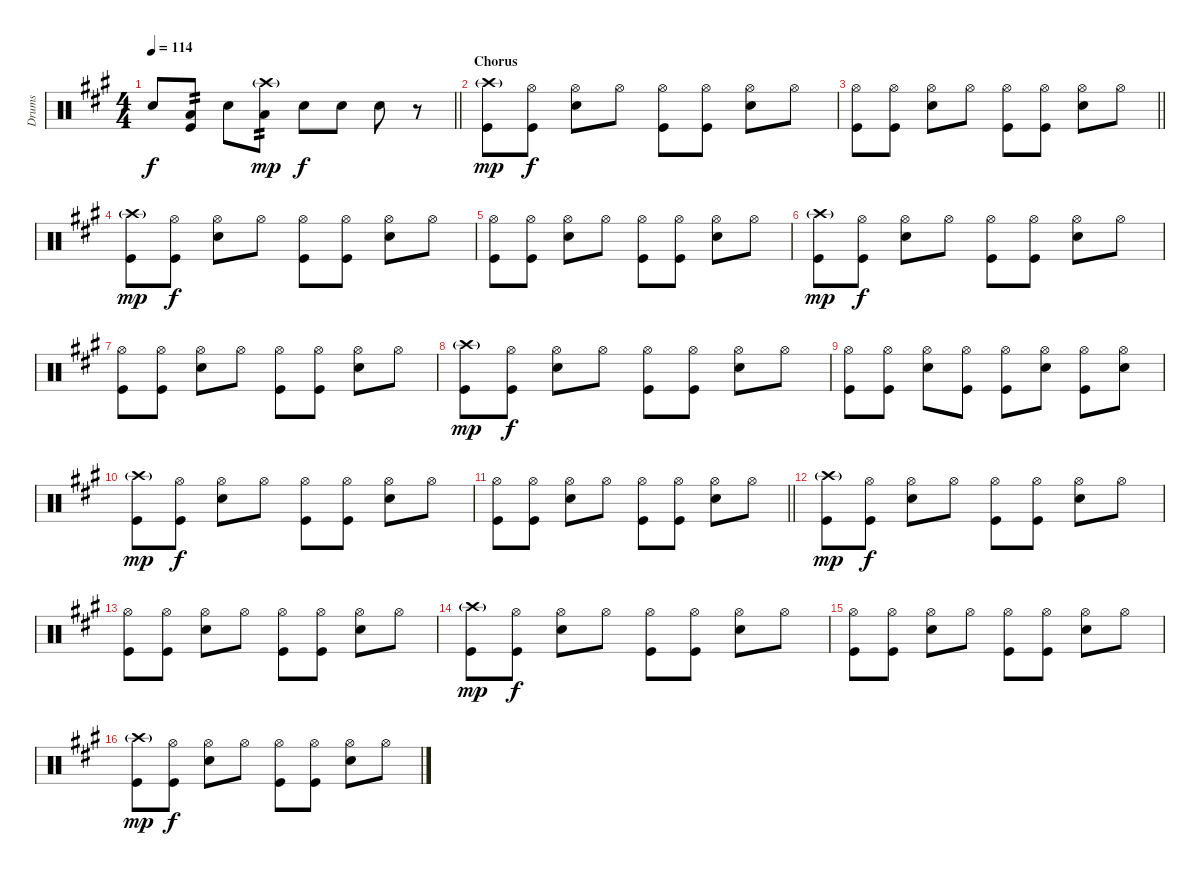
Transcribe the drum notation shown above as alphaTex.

\track ("Drums" "Drums") {instrument percussion}
\staff {score}
\articulation defaults
\ts (4 4)
\tempo 114
\clef neutral
\barLineRight lightlight
\ks f#minor "Snare (hit) 2".8{dy f}
("Low Floor Tom (hit)" "Kick (hit)").8{tp 2} "Snare (hit) 2".8 ("Crash high (hit)"{g} "Low Floor Tom (hit)").8{tp 2 dy mp} "Electric Snare (hit)".8{dy f} "Electric Snare (hit)".8 "Electric Snare (hit)".8 r.8 |
\section ("" "Chorus")
("Crash high (hit)"{g} "Kick (hit)").8{dy mp} ("Hi-Hat (open)" "Kick (hit)").8{dy f} ("Hi-Hat (open)" "Snare (hit) 2").8 "Hi-Hat (open)".8 ("Hi-Hat (open)" "Kick (hit)").8 ("Hi-Hat (open)" "Kick (hit)").8 ("Hi-Hat (open)" "Snare (hit) 2").8 "Hi-Hat (open)".8 |
\barLineRight lightlight
("Hi-Hat (open)" "Kick (hit)").8 ("Hi-Hat (open)" "Kick (hit)").8 ("Hi-Hat (open)" "Snare (hit) 2").8 "Hi-Hat (open)".8 ("Hi-Hat (open)" "Kick (hit)").8 ("Hi-Hat (open)" "Kick (hit)").8 ("Hi-Hat (open)" "Snare (hit) 2").8 "Hi-Hat (open)".8 |
("Crash high (hit)"{g} "Kick (hit)").8{dy mp} ("Hi-Hat (open)" "Kick (hit)").8{dy f} ("Hi-Hat (open)" "Snare (hit) 2").8 "Hi-Hat (open)".8 ("Hi-Hat (open)" "Kick (hit)").8 ("Hi-Hat (open)" "Kick (hit)").8 ("Hi-Hat (open)" "Snare (hit) 2").8 "Hi-Hat (open)".8 |
("Hi-Hat (open)" "Kick (hit)").8 ("Hi-Hat (open)" "Kick (hit)").8 ("Hi-Hat (open)" "Snare (hit) 2").8 "Hi-Hat (open)".8 ("Hi-Hat (open)" "Kick (hit)").8 ("Hi-Hat (open)" "Kick (hit)").8 ("Hi-Hat (open)" "Snare (hit) 2").8 "Hi-Hat (open)".8 |
("Crash high (hit)"{g} "Kick (hit)").8{dy mp} ("Hi-Hat (open)" "Kick (hit)").8{dy f} ("Hi-Hat (open)" "Snare (hit) 2").8 "Hi-Hat (open)".8 ("Hi-Hat (open)" "Kick (hit)").8 ("Hi-Hat (open)" "Kick (hit)").8 ("Hi-Hat (open)" "Snare (hit) 2").8 "Hi-Hat (open)".8 |
("Hi-Hat (open)" "Kick (hit)").8 ("Hi-Hat (open)" "Kick (hit)").8 ("Hi-Hat (open)" "Snare (hit) 2").8 "Hi-Hat (open)".8 ("Hi-Hat (open)" "Kick (hit)").8 ("Hi-Hat (open)" "Kick (hit)").8 ("Hi-Hat (open)" "Snare (hit) 2").8 "Hi-Hat (open)".8 |
("Crash high (hit)"{g} "Kick (hit)").8{dy mp} ("Hi-Hat (open)" "Kick (hit)").8{dy f} ("Hi-Hat (open)" "Snare (hit) 2").8 "Hi-Hat (open)".8 ("Hi-Hat (open)" "Kick (hit)").8 ("Hi-Hat (open)" "Kick (hit)").8 ("Hi-Hat (open)" "Snare (hit) 2").8 "Hi-Hat (open)".8 |
("Hi-Hat (open)" "Kick (hit)").8 ("Hi-Hat (open)" "Kick (hit)").8 ("Hi-Hat (open)" "Snare (hit) 2").8 ("Hi-Hat (open)" "Kick (hit)").8 ("Hi-Hat (open)" "Kick (hit)").8 ("Hi-Hat (open)" "Snare (hit) 2").8 ("Hi-Hat (open)" "Kick (hit)").8 ("Hi-Hat (open)" "Snare (hit) 2").8 |
("Crash high (hit)"{g} "Kick (hit)").8{dy mp} ("Hi-Hat (open)" "Kick (hit)").8{dy f} ("Hi-Hat (open)" "Snare (hit) 2").8 "Hi-Hat (open)".8 ("Hi-Hat (open)" "Kick (hit)").8 ("Hi-Hat (open)" "Kick (hit)").8 ("Hi-Hat (open)" "Snare (hit) 2").8 "Hi-Hat (open)".8 |
\barLineRight lightlight
("Hi-Hat (open)" "Kick (hit)").8 ("Hi-Hat (open)" "Kick (hit)").8 ("Hi-Hat (open)" "Snare (hit) 2").8 "Hi-Hat (open)".8 ("Hi-Hat (open)" "Kick (hit)").8 ("Hi-Hat (open)" "Kick (hit)").8 ("Hi-Hat (open)" "Snare (hit) 2").8 "Hi-Hat (open)".8 |
("Crash high (hit)"{g} "Kick (hit)").8{dy mp} ("Hi-Hat (open)" "Kick (hit)").8{dy f} ("Hi-Hat (open)" "Snare (hit) 2").8 "Hi-Hat (open)".8 ("Hi-Hat (open)" "Kick (hit)").8 ("Hi-Hat (open)" "Kick (hit)").8 ("Hi-Hat (open)" "Snare (hit) 2").8 "Hi-Hat (open)".8 |
("Hi-Hat (open)" "Kick (hit)").8 ("Hi-Hat (open)" "Kick (hit)").8 ("Hi-Hat (open)" "Snare (hit) 2").8 "Hi-Hat (open)".8 ("Hi-Hat (open)" "Kick (hit)").8 ("Hi-Hat (open)" "Kick (hit)").8 ("Hi-Hat (open)" "Snare (hit) 2").8 "Hi-Hat (open)".8 |
("Crash high (hit)"{g} "Kick (hit)").8{dy mp} ("Hi-Hat (open)" "Kick (hit)").8{dy f} ("Hi-Hat (open)" "Snare (hit) 2").8 "Hi-Hat (open)".8 ("Hi-Hat (open)" "Kick (hit)").8 ("Hi-Hat (open)" "Kick (hit)").8 ("Hi-Hat (open)" "Snare (hit) 2").8 "Hi-Hat (open)".8 |
("Hi-Hat (open)" "Kick (hit)").8 ("Hi-Hat (open)" "Kick (hit)").8 ("Hi-Hat (open)" "Snare (hit) 2").8 "Hi-Hat (open)".8 ("Hi-Hat (open)" "Kick (hit)").8 ("Hi-Hat (open)" "Kick (hit)").8 ("Hi-Hat (open)" "Snare (hit) 2").8 "Hi-Hat (open)".8 |
("Crash high (hit)"{g} "Kick (hit)").8{dy mp} ("Hi-Hat (open)" "Kick (hit)").8{dy f} ("Hi-Hat (open)" "Snare (hit) 2").8 "Hi-Hat (open)".8 ("Hi-Hat (open)" "Kick (hit)").8 ("Hi-Hat (open)" "Kick (hit)").8 ("Hi-Hat (open)" "Snare (hit) 2").8 "Hi-Hat (open)".8
